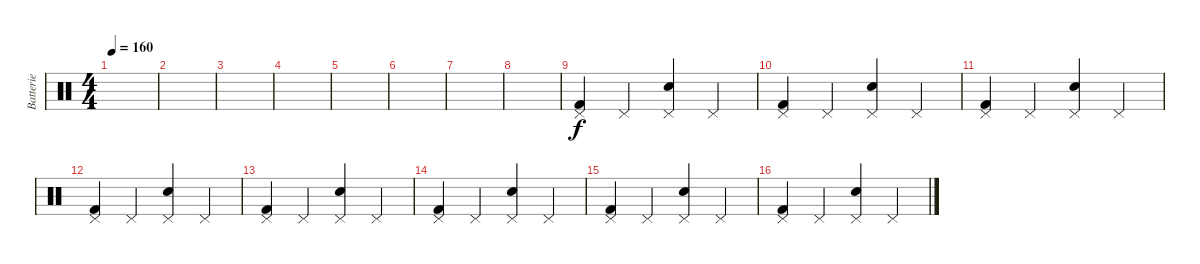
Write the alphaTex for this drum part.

\track ("Batterie" "Batterie") {instrument percussion}
\staff {score}
\articulation defaults
\ts (4 4)
\tempo 160
\clef neutral
\ks c
|
|
|
|
|
|
|
|
("Pedal Hi-Hat (hit)" "Kick (hit) 2").4 "Pedal Hi-Hat (hit)".4 ("Pedal Hi-Hat (hit)" "Electric Snare (hit)").4 "Pedal Hi-Hat (hit)".4 |
("Pedal Hi-Hat (hit)" "Kick (hit) 2").4 "Pedal Hi-Hat (hit)".4 ("Pedal Hi-Hat (hit)" "Electric Snare (hit)").4 "Pedal Hi-Hat (hit)".4 |
("Pedal Hi-Hat (hit)" "Kick (hit) 2").4 "Pedal Hi-Hat (hit)".4 ("Pedal Hi-Hat (hit)" "Electric Snare (hit)").4 "Pedal Hi-Hat (hit)".4 |
("Pedal Hi-Hat (hit)" "Kick (hit) 2").4 "Pedal Hi-Hat (hit)".4 ("Pedal Hi-Hat (hit)" "Electric Snare (hit)").4 "Pedal Hi-Hat (hit)".4 |
("Pedal Hi-Hat (hit)" "Kick (hit) 2").4 "Pedal Hi-Hat (hit)".4 ("Pedal Hi-Hat (hit)" "Electric Snare (hit)").4 "Pedal Hi-Hat (hit)".4 |
("Pedal Hi-Hat (hit)" "Kick (hit) 2").4 "Pedal Hi-Hat (hit)".4 ("Pedal Hi-Hat (hit)" "Electric Snare (hit)").4 "Pedal Hi-Hat (hit)".4 |
("Pedal Hi-Hat (hit)" "Kick (hit) 2").4 "Pedal Hi-Hat (hit)".4 ("Pedal Hi-Hat (hit)" "Electric Snare (hit)").4 "Pedal Hi-Hat (hit)".4 |
("Pedal Hi-Hat (hit)" "Kick (hit) 2").4 "Pedal Hi-Hat (hit)".4 ("Pedal Hi-Hat (hit)" "Electric Snare (hit)").4 "Pedal Hi-Hat (hit)".4
